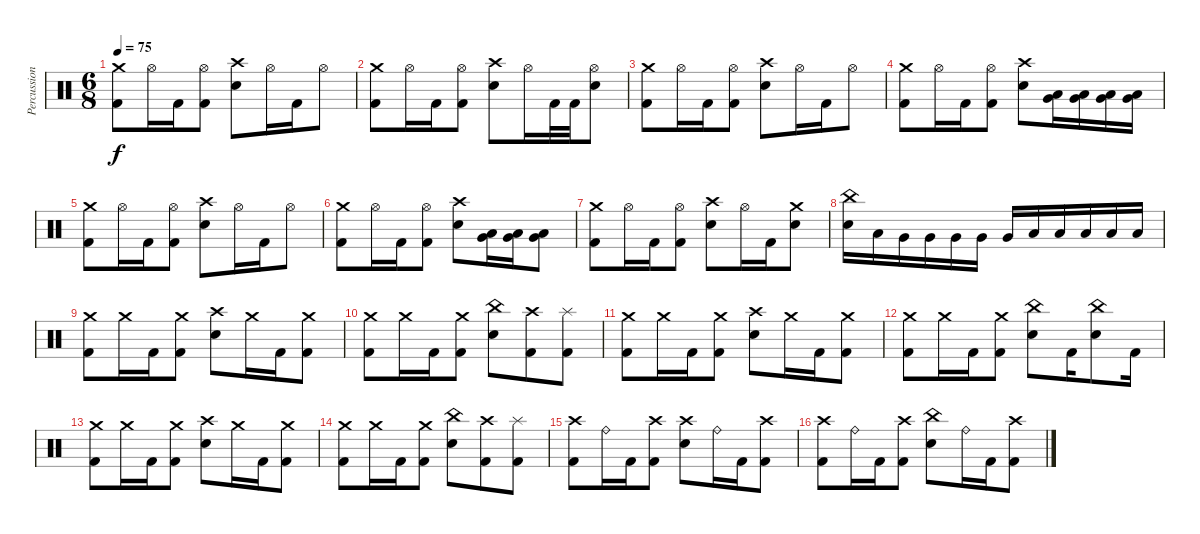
\track ("Percussions" "Percussion") {instrument percussion}
\staff {score}
\articulation defaults
\ts (6 8)
\tempo 75
\clef neutral
\ks c
("Crash medium (hit)" "Kick (hit) 2").8{dy f} "Hi-Hat (open)".16 "Kick (hit) 2".16 ("Hi-Hat (open)" "Kick (hit) 2").8 ("Crash high (hit)" "Electric Snare (hit)").8 "Hi-Hat (open)".16 "Kick (hit) 2".16 "Hi-Hat (open)".8 |
("Crash medium (hit)" "Kick (hit) 2").8 "Hi-Hat (open)".16 "Kick (hit) 2".16 ("Hi-Hat (open)" "Kick (hit) 2").8 ("Crash high (hit)" "Electric Snare (hit)").8 "Hi-Hat (open)".16 "Kick (hit) 2".32 "Kick (hit) 2".32 ("Hi-Hat (open)" "Electric Snare (hit)").8 |
("Crash medium (hit)" "Kick (hit) 2").8 "Hi-Hat (open)".16 "Kick (hit) 2".16 ("Hi-Hat (open)" "Kick (hit) 2").8 ("Crash high (hit)" "Electric Snare (hit)").8 "Hi-Hat (open)".16 "Kick (hit) 2".16 "Hi-Hat (open)".8 |
("Crash medium (hit)" "Kick (hit) 2").8 "Hi-Hat (open)".16 "Kick (hit) 2".16 ("Hi-Hat (open)" "Kick (hit) 2").8 ("Crash high (hit)" "Electric Snare (hit)").8 ("Low Tom (hit)" "Very Low Tom (hit)").16 ("Low Tom (hit)" "Very Low Tom (hit)").16 ("Low Tom (hit)" "Very Low Tom (hit)").16 ("Low Tom (hit)" "Very Low Tom (hit)").16 |
("Crash medium (hit)" "Kick (hit) 2").8 "Hi-Hat (open)".16 "Kick (hit) 2".16 ("Hi-Hat (open)" "Kick (hit) 2").8 ("Crash high (hit)" "Electric Snare (hit)").8 "Hi-Hat (open)".16 "Kick (hit) 2".16 "Hi-Hat (open)".8 |
("Crash medium (hit)" "Kick (hit) 2").8 "Hi-Hat (open)".16 "Kick (hit) 2".16 ("Hi-Hat (open)" "Kick (hit) 2").8 ("Crash high (hit)" "Electric Snare (hit)").8 ("Low Tom (hit)" "Very Low Tom (hit)").16 ("Low Tom (hit)" "Very Low Tom (hit)").16 ("Low Tom (hit)" "Very Low Tom (hit)").8 |
("Crash medium (hit)" "Kick (hit) 2").8 "Hi-Hat (open)".16 "Kick (hit) 2".16 ("Hi-Hat (open)" "Kick (hit) 2").8 ("Crash high (hit)" "Electric Snare (hit)").8 "Hi-Hat (open)".16 "Kick (hit) 2".16 ("Crash medium (hit)" "Electric Snare (hit)").8 |
("China (hit)" "Electric Snare (hit)").16 "Low Tom (hit)".16 "Very Low Tom (hit)".16 "Very Low Tom (hit)".16 "Very Low Tom (hit)".16 "Very Low Tom (hit)".16 "Very Low Tom (hit)".16 "Low Floor Tom (hit)".16 "Low Floor Tom (hit)".16 "Low Floor Tom (hit)".16 "Low Floor Tom (hit)".16 "Low Floor Tom (hit)".16 |
("Crash medium (hit)" "Kick (hit) 2").8 "Crash medium (hit)".16 "Kick (hit) 2".16 ("Crash medium (hit)" "Kick (hit) 2").8 ("Crash high (hit)" "Electric Snare (hit)").8 "Crash medium (hit)".16 "Kick (hit) 2".16 ("Crash medium (hit)" "Kick (hit) 2").8 |
("Crash medium (hit)" "Kick (hit) 2").8 "Crash medium (hit)".16 "Kick (hit) 2".16 ("Crash medium (hit)" "Kick (hit) 2").8 ("China (hit)" "Electric Snare (hit)").8 ("Crash high (hit)" "Kick (hit) 2").8 ("Splash (hit)" "Kick (hit) 2").8 |
("Crash medium (hit)" "Kick (hit) 2").8 "Crash medium (hit)".16 "Kick (hit) 2".16 ("Crash medium (hit)" "Kick (hit) 2").8 ("Crash high (hit)" "Electric Snare (hit)").8 "Crash medium (hit)".16 "Kick (hit) 2".16 ("Crash medium (hit)" "Kick (hit) 2").8 |
("Crash medium (hit)" "Kick (hit) 2").8 "Crash medium (hit)".16 "Kick (hit) 2".16 ("Crash medium (hit)" "Kick (hit) 2").8 ("China (hit)" "Electric Snare (hit)").8 "Kick (hit) 2".16 ("China (hit)" "Electric Snare (hit)").8 "Kick (hit) 2".16 |
("Crash medium (hit)" "Kick (hit) 2").8 "Crash medium (hit)".16 "Kick (hit) 2".16 ("Crash medium (hit)" "Kick (hit) 2").8 ("Crash high (hit)" "Electric Snare (hit)").8 "Crash medium (hit)".16 "Kick (hit) 2".16 ("Crash medium (hit)" "Kick (hit) 2").8 |
("Crash medium (hit)" "Kick (hit) 2").8 "Crash medium (hit)".16 "Kick (hit) 2".16 ("Crash medium (hit)" "Kick (hit) 2").8 ("China (hit)" "Electric Snare (hit)").8 ("Crash high (hit)" "Kick (hit) 2").8 ("Splash (hit)" "Kick (hit) 2").8 |
("Crash high (hit)" "Kick (hit) 2").8 "Ride (bell)".16 "Kick (hit) 2".16 ("Crash high (hit)" "Kick (hit) 2").8 ("Crash high (hit)" "Electric Snare (hit)").8 "Ride (bell)".16 "Kick (hit) 2".16 ("Crash high (hit)" "Kick (hit) 2").8 |
("Crash high (hit)" "Kick (hit) 2").8 "Ride (bell)".16 "Kick (hit) 2".16 ("Crash high (hit)" "Kick (hit) 2").8 ("China (hit)" "Electric Snare (hit)").8 "Ride (bell)".16 "Kick (hit) 2".16 ("Crash high (hit)" "Kick (hit) 2").8
